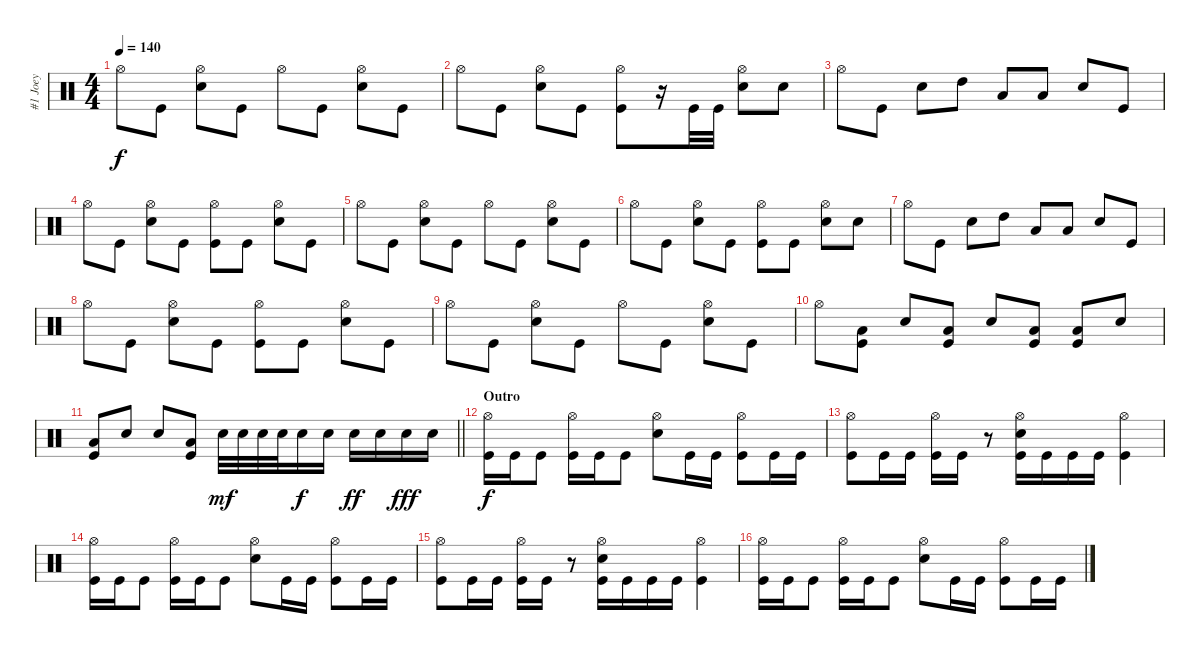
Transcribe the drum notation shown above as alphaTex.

\track ("#1 Joey" "#1 Joey") {solo instrument percussion}
\staff {score}
\articulation defaults
\ts (4 4)
\tempo 140
\clef neutral
\ks c "Hi-Hat (open)".8{dy f} "Kick (hit)".8
("Hi-Hat (open)" "Electric Snare (hit)").8 "Kick (hit)".8 "Hi-Hat (open)".8 "Kick (hit)".8 ("Hi-Hat (open)" "Electric Snare (hit)").8 "Kick (hit)".8 |
"Hi-Hat (open)".8 "Kick (hit)".8 ("Hi-Hat (open)" "Electric Snare (hit)").8 "Kick (hit)".8 ("Hi-Hat (open)" "Kick (hit)").8 r.16 "Kick (hit)".32 "Kick (hit)".32 ("Hi-Hat (open)" "Electric Snare (hit)").8 "Electric Snare (hit)".8 |
"Hi-Hat (open)".8 "Kick (hit)".8 "Electric Snare (hit)".8 "High Tom (hit)".8 "Low Tom (hit)".8 "Low Floor Tom (hit)".8 "Electric Snare (hit)".8 "Kick (hit)".8 |
"Hi-Hat (open)".8 "Kick (hit)".8 ("Hi-Hat (open)" "Electric Snare (hit)").8 "Kick (hit)".8 ("Hi-Hat (open)" "Kick (hit)").8 "Kick (hit)".8 ("Hi-Hat (open)" "Electric Snare (hit)").8 "Kick (hit)".8 |
"Hi-Hat (open)".8 "Kick (hit)".8 ("Hi-Hat (open)" "Electric Snare (hit)").8 "Kick (hit)".8 "Hi-Hat (open)".8 "Kick (hit)".8 ("Hi-Hat (open)" "Electric Snare (hit)").8 "Kick (hit)".8 |
"Hi-Hat (open)".8 "Kick (hit)".8 ("Hi-Hat (open)" "Electric Snare (hit)").8 "Kick (hit)".8 ("Hi-Hat (open)" "Kick (hit)").8 "Kick (hit)".8 ("Hi-Hat (open)" "Electric Snare (hit)").8 "Electric Snare (hit)".8 |
"Hi-Hat (open)".8 "Kick (hit)".8 "Electric Snare (hit)".8 "High Tom (hit)".8 "Low Tom (hit)".8 "Low Floor Tom (hit)".8 "Electric Snare (hit)".8 "Kick (hit)".8 |
"Hi-Hat (open)".8 "Kick (hit)".8 ("Hi-Hat (open)" "Electric Snare (hit)").8 "Kick (hit)".8 ("Hi-Hat (open)" "Kick (hit)").8 "Kick (hit)".8 ("Hi-Hat (open)" "Electric Snare (hit)").8 "Kick (hit)".8 |
"Hi-Hat (open)".8 "Kick (hit)".8 ("Hi-Hat (open)" "Electric Snare (hit)").8 "Kick (hit)".8 "Hi-Hat (open)".8 "Kick (hit)".8 ("Hi-Hat (open)" "Electric Snare (hit)").8 "Kick (hit)".8 |
"Hi-Hat (open)".8 ("Low Tom (hit)" "Kick (hit)").8 "Electric Snare (hit)".8 ("Low Tom (hit)" "Kick (hit)").8 "Electric Snare (hit)".8 ("Low Tom (hit)" "Kick (hit)").8 ("Low Tom (hit)" "Kick (hit)").8 "Electric Snare (hit)".8 |
\barLineRight lightlight
("Low Tom (hit)" "Kick (hit)").8 "Electric Snare (hit)".8 "Electric Snare (hit)".8 ("Low Tom (hit)" "Kick (hit)").8 "Electric Snare (hit)".32{dy mf} "Electric Snare (hit)".32 "Electric Snare (hit)".32 "Electric Snare (hit)".32 "Electric Snare (hit)".16{dy f} "Electric Snare (hit)".16 "Electric Snare (hit)".16{dy ff} "Electric Snare (hit)".16 "Electric Snare (hit)".16{dy fff} "Electric Snare (hit)".16 |
\section ("" "Outro")
("Hi-Hat (open)" "Kick (hit)").16{dy f} "Kick (hit)".16 "Kick (hit)".8 ("Hi-Hat (open)" "Kick (hit)").16 "Kick (hit)".16 "Kick (hit)".8 ("Hi-Hat (open)" "Electric Snare (hit)").8 "Kick (hit)".16 "Kick (hit)".16 ("Hi-Hat (open)" "Kick (hit)").8 "Kick (hit)".16 "Kick (hit)".16 |
("Hi-Hat (open)" "Kick (hit)").8 "Kick (hit)".16 "Kick (hit)".16 ("Hi-Hat (open)" "Kick (hit)").16 "Kick (hit)".16 r.8 ("Hi-Hat (open)" "Electric Snare (hit)" "Kick (hit)").16 "Kick (hit)".16 "Kick (hit)".16 "Kick (hit)".16 ("Hi-Hat (open)" "Kick (hit)").4 |
("Hi-Hat (open)" "Kick (hit)").16 "Kick (hit)".16 "Kick (hit)".8 ("Hi-Hat (open)" "Kick (hit)").16 "Kick (hit)".16 "Kick (hit)".8 ("Hi-Hat (open)" "Electric Snare (hit)").8 "Kick (hit)".16 "Kick (hit)".16 ("Hi-Hat (open)" "Kick (hit)").8 "Kick (hit)".16 "Kick (hit)".16 |
("Hi-Hat (open)" "Kick (hit)").8 "Kick (hit)".16 "Kick (hit)".16 ("Hi-Hat (open)" "Kick (hit)").16 "Kick (hit)".16 r.8 ("Hi-Hat (open)" "Electric Snare (hit)" "Kick (hit)").16 "Kick (hit)".16 "Kick (hit)".16 "Kick (hit)".16 ("Hi-Hat (open)" "Kick (hit)").4 |
("Hi-Hat (open)" "Kick (hit)").16 "Kick (hit)".16 "Kick (hit)".8 ("Hi-Hat (open)" "Kick (hit)").16 "Kick (hit)".16 "Kick (hit)".8 ("Hi-Hat (open)" "Electric Snare (hit)").8 "Kick (hit)".16 "Kick (hit)".16 ("Hi-Hat (open)" "Kick (hit)").8 "Kick (hit)".16 "Kick (hit)".16
